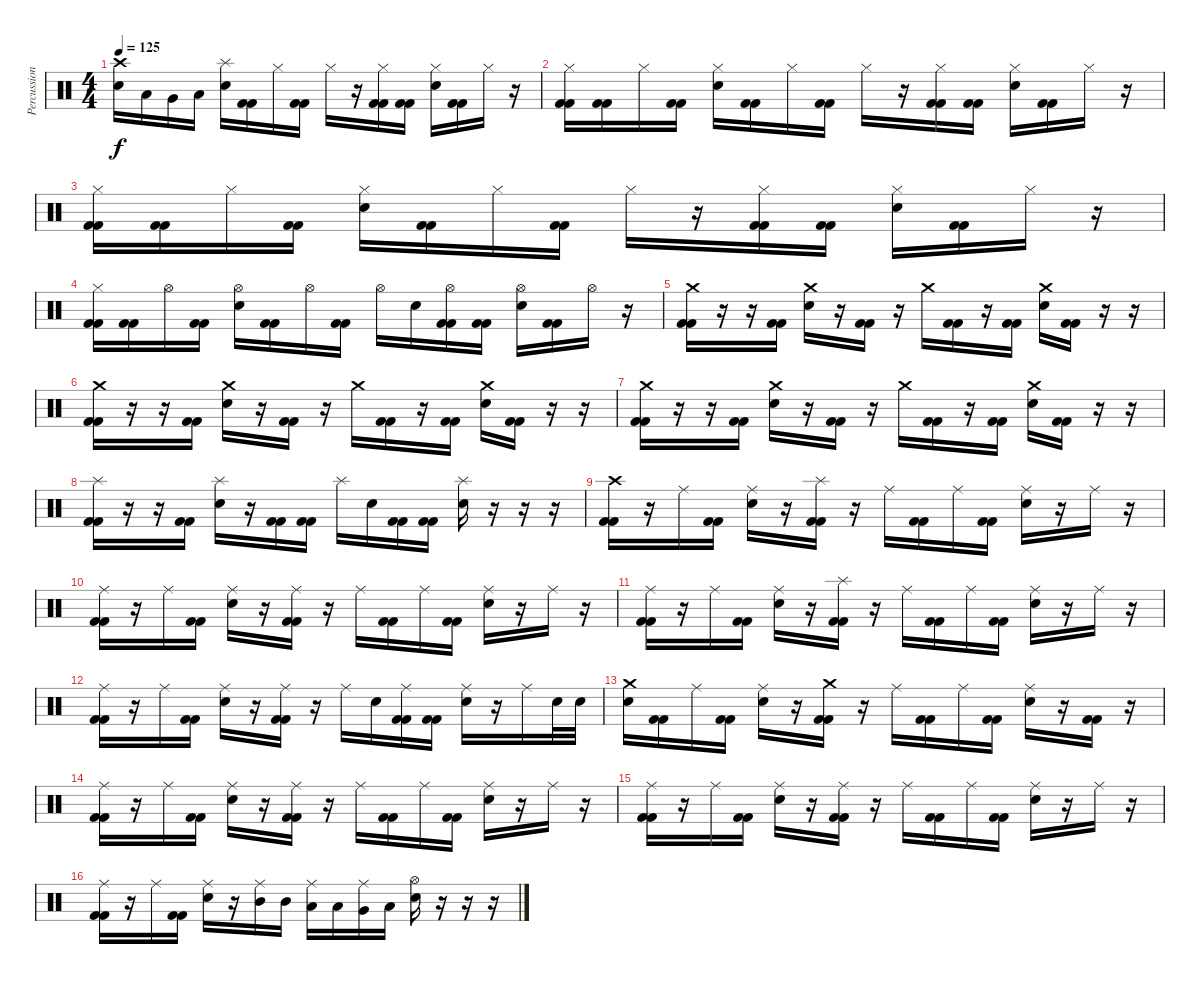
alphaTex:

\track ("Percussion" "Percussion") {instrument percussion}
\staff {score}
\articulation defaults
\ts (4 4)
\tempo 125
\clef neutral
\ks c
("Crash high (hit)" "Electric Snare (hit)").16{dy f} "Low Tom (hit)".16 "Very Low Tom (hit)".16 "Low Floor Tom (hit)".16 ("Splash (hit)" "Electric Snare (hit)").16 ("Kick (hit) 2" "Kick (hit) 2").16 "Hi-Hat (closed)".16 ("Kick (hit) 2" "Kick (hit) 2").16 "Hi-Hat (closed)".16 r.16 ("Hi-Hat (closed)" "Kick (hit) 2" "Kick (hit) 2").16 ("Kick (hit) 2" "Kick (hit) 2").16 ("Hi-Hat (closed)" "Electric Snare (hit)").16 ("Kick (hit) 2" "Kick (hit) 2").16 "Hi-Hat (closed)".16 r.16 |
("Hi-Hat (closed)" "Kick (hit) 2" "Kick (hit) 2").16 ("Kick (hit) 2" "Kick (hit) 2").16 "Hi-Hat (closed)".16 ("Kick (hit) 2" "Kick (hit) 2").16 ("Hi-Hat (closed)" "Electric Snare (hit)").16 ("Kick (hit) 2" "Kick (hit) 2").16 "Hi-Hat (closed)".16 ("Kick (hit) 2" "Kick (hit) 2").16 "Hi-Hat (closed)".16 r.16 ("Hi-Hat (closed)" "Kick (hit) 2" "Kick (hit) 2").16 ("Kick (hit) 2" "Kick (hit) 2").16 ("Hi-Hat (closed)" "Electric Snare (hit)").16 ("Kick (hit) 2" "Kick (hit) 2").16 "Hi-Hat (closed)".16 r.16 |
("Hi-Hat (closed)" "Kick (hit) 2" "Kick (hit) 2").16 ("Kick (hit) 2" "Kick (hit) 2").16 "Hi-Hat (closed)".16 ("Kick (hit) 2" "Kick (hit) 2").16 ("Hi-Hat (closed)" "Electric Snare (hit)").16 ("Kick (hit) 2" "Kick (hit) 2").16 "Hi-Hat (closed)".16 ("Kick (hit) 2" "Kick (hit) 2").16 "Hi-Hat (closed)".16 r.16 ("Hi-Hat (closed)" "Kick (hit) 2" "Kick (hit) 2").16 ("Kick (hit) 2" "Kick (hit) 2").16 ("Hi-Hat (closed)" "Electric Snare (hit)").16 ("Kick (hit) 2" "Kick (hit) 2").16 "Hi-Hat (closed)".16 r.16 |
("Hi-Hat (closed)" "Kick (hit) 2" "Kick (hit) 2").16 ("Kick (hit) 2" "Kick (hit) 2").16 "Hi-Hat (open)".16 ("Kick (hit) 2" "Kick (hit) 2").16 ("Hi-Hat (open)" "Electric Snare (hit)").16 ("Kick (hit) 2" "Kick (hit) 2").16 "Hi-Hat (open)".16 ("Kick (hit) 2" "Kick (hit) 2").16 "Hi-Hat (open)".16 "Electric Snare (hit)".16 ("Hi-Hat (open)" "Kick (hit) 2" "Kick (hit) 2").16 ("Kick (hit) 2" "Kick (hit) 2").16 ("Hi-Hat (open)" "Electric Snare (hit)").16 ("Kick (hit) 2" "Kick (hit) 2").16 "Hi-Hat (open)".16 r.16 |
("Crash medium (hit)" "Kick (hit) 2" "Kick (hit) 2").16 r.16 r.16 ("Kick (hit) 2" "Kick (hit) 2").16 ("Crash medium (hit)" "Electric Snare (hit)").16 r.16 ("Kick (hit) 2" "Kick (hit) 2").16 r.16 "Crash medium (hit)".16 ("Kick (hit) 2" "Kick (hit) 2").16 r.16 ("Kick (hit) 2" "Kick (hit) 2").16 ("Crash medium (hit)" "Electric Snare (hit)").16 ("Kick (hit) 2" "Kick (hit) 2").16 r.16 r.16 |
("Crash medium (hit)" "Kick (hit) 2" "Kick (hit) 2").16 r.16 r.16 ("Kick (hit) 2" "Kick (hit) 2").16 ("Crash medium (hit)" "Electric Snare (hit)").16 r.16 ("Kick (hit) 2" "Kick (hit) 2").16 r.16 "Crash medium (hit)".16 ("Kick (hit) 2" "Kick (hit) 2").16 r.16 ("Kick (hit) 2" "Kick (hit) 2").16 ("Crash medium (hit)" "Electric Snare (hit)").16 ("Kick (hit) 2" "Kick (hit) 2").16 r.16 r.16 |
("Crash medium (hit)" "Kick (hit) 2" "Kick (hit) 2").16 r.16 r.16 ("Kick (hit) 2" "Kick (hit) 2").16 ("Crash medium (hit)" "Electric Snare (hit)").16 r.16 ("Kick (hit) 2" "Kick (hit) 2").16 r.16 "Crash medium (hit)".16 ("Kick (hit) 2" "Kick (hit) 2").16 r.16 ("Kick (hit) 2" "Kick (hit) 2").16 ("Crash medium (hit)" "Electric Snare (hit)").16 ("Kick (hit) 2" "Kick (hit) 2").16 r.16 r.16 |
("Splash (hit)" "Kick (hit) 2" "Kick (hit) 2").16 r.16 r.16 ("Kick (hit) 2" "Kick (hit) 2").16 ("Splash (hit)" "Electric Snare (hit)").16 r.16 ("Kick (hit) 2" "Kick (hit) 2").16 ("Kick (hit) 2" "Kick (hit) 2").16 "Splash (hit)".16 "Electric Snare (hit)".16 ("Kick (hit) 2" "Kick (hit) 2").16 ("Kick (hit) 2" "Kick (hit) 2").16 ("Splash (hit)" "Electric Snare (hit)").16 r.16 r.16 r.16 |
("Crash high (hit)" "Kick (hit) 2" "Kick (hit) 2").16 r.16 "Ride (middle)".16 ("Kick (hit) 2" "Kick (hit) 2").16 ("Ride (middle)" "Electric Snare (hit)").16 r.16 ("Splash (hit)" "Kick (hit) 2" "Kick (hit) 2").16 r.16 "Ride (middle)".16 ("Kick (hit) 2" "Kick (hit) 2").16 "Ride (middle)".16 ("Kick (hit) 2" "Kick (hit) 2").16 ("Ride (middle)" "Electric Snare (hit)").16 r.16 "Ride (middle)".16 r.16 |
("Ride (middle)" "Kick (hit) 2" "Kick (hit) 2").16 r.16 "Ride (middle)".16 ("Kick (hit) 2" "Kick (hit) 2").16 ("Ride (middle)" "Electric Snare (hit)").16 r.16 ("Ride (middle)" "Kick (hit) 2" "Kick (hit) 2").16 r.16 "Ride (middle)".16 ("Kick (hit) 2" "Kick (hit) 2").16 "Ride (middle)".16 ("Kick (hit) 2" "Kick (hit) 2").16 ("Ride (middle)" "Electric Snare (hit)").16 r.16 "Ride (middle)".16 r.16 |
("Ride (middle)" "Kick (hit) 2" "Kick (hit) 2").16 r.16 "Ride (middle)".16 ("Kick (hit) 2" "Kick (hit) 2").16 ("Ride (middle)" "Electric Snare (hit)").16 r.16 ("Splash (hit)" "Kick (hit) 2" "Kick (hit) 2").16 r.16 "Ride (middle)".16 ("Kick (hit) 2" "Kick (hit) 2").16 "Ride (middle)".16 ("Kick (hit) 2" "Kick (hit) 2").16 ("Ride (middle)" "Electric Snare (hit)").16 r.16 "Ride (middle)".16 r.16 |
("Ride (middle)" "Kick (hit) 2" "Kick (hit) 2").16 r.16 "Ride (middle)".16 ("Kick (hit) 2" "Kick (hit) 2").16 ("Ride (middle)" "Electric Snare (hit)").16 r.16 ("Ride (middle)" "Kick (hit) 2" "Kick (hit) 2").16 r.16 "Ride (middle)".16 "Electric Snare (hit)".16 ("Ride (middle)" "Kick (hit) 2" "Kick (hit) 2").16 ("Kick (hit) 2" "Kick (hit) 2").16 ("Ride (middle)" "Electric Snare (hit)").16 r.16 "Ride (middle)".16 "Electric Snare (hit)".32 "Electric Snare (hit)".32 |
("Crash medium (hit)" "Electric Snare (hit)").16 ("Kick (hit) 2" "Kick (hit) 2").16 "Ride (middle)".16 ("Kick (hit) 2" "Kick (hit) 2").16 ("Ride (middle)" "Electric Snare (hit)").16 r.16 ("Crash medium (hit)" "Kick (hit) 2" "Kick (hit) 2").16 r.16 "Ride (middle)".16 ("Kick (hit) 2" "Kick (hit) 2").16 "Ride (middle)".16 ("Kick (hit) 2" "Kick (hit) 2").16 ("Ride (middle)" "Electric Snare (hit)").16 r.16 ("Kick (hit) 2" "Kick (hit) 2").16 r.16 |
("Ride (middle)" "Kick (hit) 2" "Kick (hit) 2").16 r.16 "Ride (middle)".16 ("Kick (hit) 2" "Kick (hit) 2").16 ("Ride (middle)" "Electric Snare (hit)").16 r.16 ("Ride (middle)" "Kick (hit) 2" "Kick (hit) 2").16 r.16 "Ride (middle)".16 ("Kick (hit) 2" "Kick (hit) 2").16 "Ride (middle)".16 ("Kick (hit) 2" "Kick (hit) 2").16 ("Ride (middle)" "Electric Snare (hit)").16 r.16 "Ride (middle)".16 r.16 |
("Ride (middle)" "Kick (hit) 2" "Kick (hit) 2").16 r.16 "Ride (middle)".16 ("Kick (hit) 2" "Kick (hit) 2").16 ("Ride (middle)" "Electric Snare (hit)").16 r.16 ("Ride (middle)" "Kick (hit) 2" "Kick (hit) 2").16 r.16 "Ride (middle)".16 ("Kick (hit) 2" "Kick (hit) 2").16 "Ride (middle)".16 ("Kick (hit) 2" "Kick (hit) 2").16 ("Ride (middle)" "Electric Snare (hit)").16 r.16 "Ride (middle)".16 r.16 |
("Ride (middle)" "Kick (hit) 2" "Kick (hit) 2").16 r.16 "Ride (middle)".16 ("Kick (hit) 2" "Kick (hit) 2").16 ("Ride (middle)" "Electric Snare (hit)").16 r.16 ("Ride (middle)" "Mid Tom (hit)").16 "Mid Tom (hit)".16 ("Ride (middle)" "Low Tom (hit)").16 "Low Tom (hit)".16 ("Ride (middle)" "Very Low Tom (hit)").16 "Low Floor Tom (hit)".16 ("Hi-Hat (open)" "Electric Snare (hit)").16 r.16 r.16 r.16
